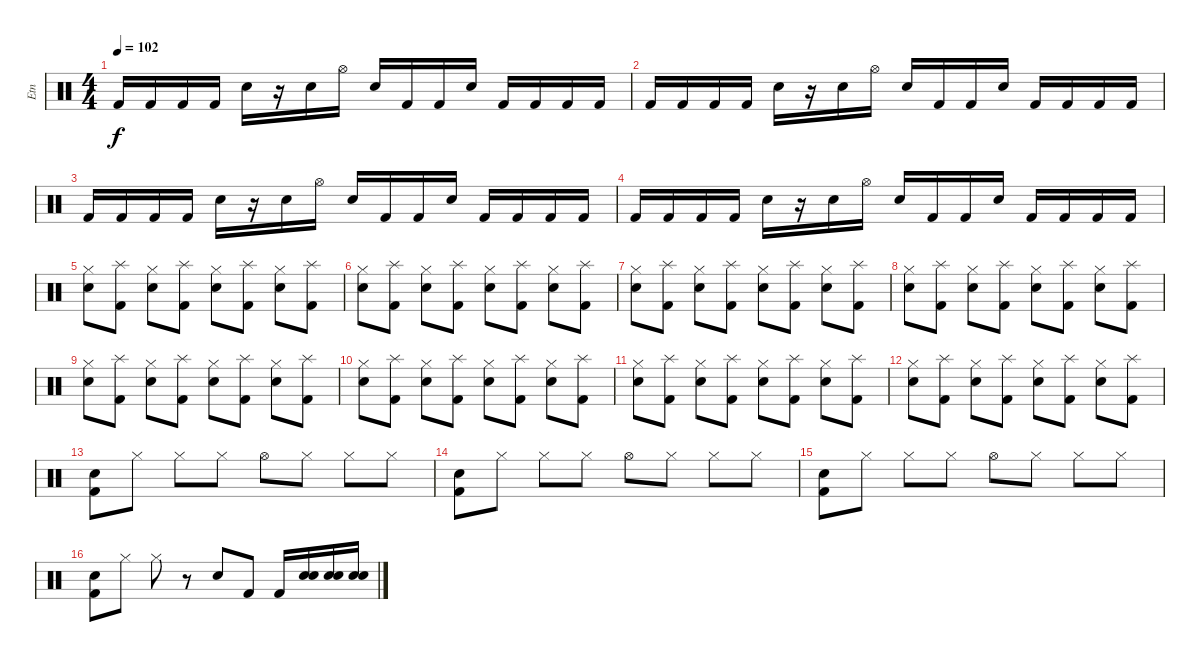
\track ("Etn" "Etn") {instrument percussion}
\staff {score}
\articulation defaults
\ts (4 4)
\tempo 102
\clef neutral
\ks c "Kick (hit) 2".16{dy f} "Kick (hit) 2".16 "Kick (hit) 2".16 "Kick (hit) 2".16 "Snare (hit) 2".16
r.16 "Snare (hit) 2".16 "Hi-Hat (open)".16 "Snare (hit) 2".16 "Kick (hit) 2".16 "Kick (hit) 2".16 "Snare (hit) 2".16 "Kick (hit) 2".16 "Kick (hit) 2".16 "Kick (hit) 2".16 "Kick (hit) 2".16 |
"Kick (hit) 2".16 "Kick (hit) 2".16 "Kick (hit) 2".16 "Kick (hit) 2".16 "Snare (hit) 2".16 r.16 "Snare (hit) 2".16 "Hi-Hat (open)".16 "Snare (hit) 2".16 "Kick (hit) 2".16 "Kick (hit) 2".16 "Snare (hit) 2".16 "Kick (hit) 2".16 "Kick (hit) 2".16 "Kick (hit) 2".16 "Kick (hit) 2".16 |
"Kick (hit) 2".16 "Kick (hit) 2".16 "Kick (hit) 2".16 "Kick (hit) 2".16 "Snare (hit) 2".16 r.16 "Snare (hit) 2".16 "Hi-Hat (open)".16 "Snare (hit) 2".16 "Kick (hit) 2".16 "Kick (hit) 2".16 "Snare (hit) 2".16 "Kick (hit) 2".16 "Kick (hit) 2".16 "Kick (hit) 2".16 "Kick (hit) 2".16 |
"Kick (hit) 2".16 "Kick (hit) 2".16 "Kick (hit) 2".16 "Kick (hit) 2".16 "Snare (hit) 2".16 r.16 "Snare (hit) 2".16 "Hi-Hat (open)".16 "Snare (hit) 2".16 "Kick (hit) 2".16 "Kick (hit) 2".16 "Snare (hit) 2".16 "Kick (hit) 2".16 "Kick (hit) 2".16 "Kick (hit) 2".16 "Kick (hit) 2".16 |
("Hi-Hat (closed)" "Snare (hit) 2").8 ("Splash (hit)" "Kick (hit) 2").8 ("Hi-Hat (closed)" "Snare (hit) 2").8 ("Splash (hit)" "Kick (hit) 2").8 ("Hi-Hat (closed)" "Snare (hit) 2").8 ("Splash (hit)" "Kick (hit) 2").8 ("Hi-Hat (closed)" "Snare (hit) 2").8 ("Splash (hit)" "Kick (hit) 2").8 |
("Hi-Hat (closed)" "Snare (hit) 2").8 ("Splash (hit)" "Kick (hit) 2").8 ("Hi-Hat (closed)" "Snare (hit) 2").8 ("Splash (hit)" "Kick (hit) 2").8 ("Hi-Hat (closed)" "Snare (hit) 2").8 ("Splash (hit)" "Kick (hit) 2").8 ("Hi-Hat (closed)" "Snare (hit) 2").8 ("Splash (hit)" "Kick (hit) 2").8 |
("Hi-Hat (closed)" "Snare (hit) 2").8 ("Splash (hit)" "Kick (hit) 2").8 ("Hi-Hat (closed)" "Snare (hit) 2").8 ("Splash (hit)" "Kick (hit) 2").8 ("Hi-Hat (closed)" "Snare (hit) 2").8 ("Splash (hit)" "Kick (hit) 2").8 ("Hi-Hat (closed)" "Snare (hit) 2").8 ("Splash (hit)" "Kick (hit) 2").8 |
("Hi-Hat (closed)" "Snare (hit) 2").8 ("Splash (hit)" "Kick (hit) 2").8 ("Hi-Hat (closed)" "Snare (hit) 2").8 ("Splash (hit)" "Kick (hit) 2").8 ("Hi-Hat (closed)" "Snare (hit) 2").8 ("Splash (hit)" "Kick (hit) 2").8 ("Hi-Hat (closed)" "Snare (hit) 2").8 ("Splash (hit)" "Kick (hit) 2").8 |
("Hi-Hat (closed)" "Snare (hit) 2").8 ("Splash (hit)" "Kick (hit) 2").8 ("Hi-Hat (closed)" "Snare (hit) 2").8 ("Splash (hit)" "Kick (hit) 2").8 ("Hi-Hat (closed)" "Snare (hit) 2").8 ("Splash (hit)" "Kick (hit) 2").8 ("Hi-Hat (closed)" "Snare (hit) 2").8 ("Splash (hit)" "Kick (hit) 2").8 |
("Hi-Hat (closed)" "Snare (hit) 2").8 ("Splash (hit)" "Kick (hit) 2").8 ("Hi-Hat (closed)" "Snare (hit) 2").8 ("Splash (hit)" "Kick (hit) 2").8 ("Hi-Hat (closed)" "Snare (hit) 2").8 ("Splash (hit)" "Kick (hit) 2").8 ("Hi-Hat (closed)" "Snare (hit) 2").8 ("Splash (hit)" "Kick (hit) 2").8 |
("Hi-Hat (closed)" "Snare (hit) 2").8 ("Splash (hit)" "Kick (hit) 2").8 ("Hi-Hat (closed)" "Snare (hit) 2").8 ("Splash (hit)" "Kick (hit) 2").8 ("Hi-Hat (closed)" "Snare (hit) 2").8 ("Splash (hit)" "Kick (hit) 2").8 ("Hi-Hat (closed)" "Snare (hit) 2").8 ("Splash (hit)" "Kick (hit) 2").8 |
("Hi-Hat (closed)" "Snare (hit) 2").8 ("Splash (hit)" "Kick (hit) 2").8 ("Hi-Hat (closed)" "Snare (hit) 2").8 ("Splash (hit)" "Kick (hit) 2").8 ("Hi-Hat (closed)" "Snare (hit) 2").8 ("Splash (hit)" "Kick (hit) 2").8 ("Hi-Hat (closed)" "Snare (hit) 2").8 ("Splash (hit)" "Kick (hit) 2").8 |
("Snare (hit) 2" "Kick (hit) 2").8 "Hi-Hat (closed)".8 "Hi-Hat (closed)".8 "Hi-Hat (closed)".8 "Hi-Hat (open)".8 "Hi-Hat (closed)".8 "Hi-Hat (closed)".8 "Hi-Hat (closed)".8 |
("Snare (hit) 2" "Kick (hit) 2").8 "Hi-Hat (closed)".8 "Hi-Hat (closed)".8 "Hi-Hat (closed)".8 "Hi-Hat (open)".8 "Hi-Hat (closed)".8 "Hi-Hat (closed)".8 "Hi-Hat (closed)".8 |
("Snare (hit) 2" "Kick (hit) 2").8 "Hi-Hat (closed)".8 "Hi-Hat (closed)".8 "Hi-Hat (closed)".8 "Hi-Hat (open)".8 "Hi-Hat (closed)".8 "Hi-Hat (closed)".8 "Hi-Hat (closed)".8 |
("Snare (hit) 2" "Kick (hit) 2").8 "Hi-Hat (closed)".8 "Hi-Hat (closed)".8 r.8 "Snare (hit) 2".8 "Kick (hit) 2".8 "Kick (hit) 2".16 ("Snare (hit) 2" "Snare (hit) 2").16 ("Snare (hit) 2" "Snare (hit) 2").16 ("Snare (hit) 2" "Snare (hit) 2").16
